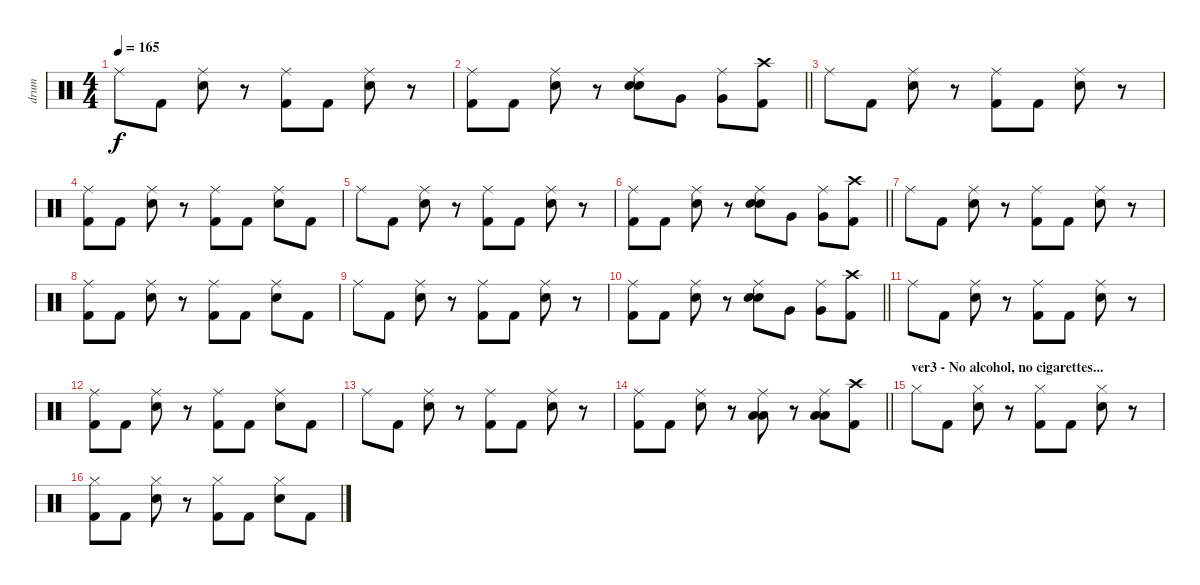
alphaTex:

\track ("drum" "drum") {instrument percussion}
\staff {score}
\articulation defaults
\ts (4 4)
\tempo 165
\clef neutral
\ks c "Ride (middle)".8{dy f} "Kick (hit) 2".8
("Ride (middle)" "Snare (hit) 2").8 r.8 ("Ride (middle)" "Kick (hit) 2").8 "Kick (hit) 2".8 ("Ride (middle)" "Snare (hit) 2").8 r.8 |
\barLineRight lightlight
("Ride (middle)" "Kick (hit) 2").8 "Kick (hit) 2".8 ("Ride (middle)" "Snare (hit) 2").8 r.8 ("Ride (middle)" "Snare (hit) 2" "Snare (hit) 2").8 "Very Low Tom (hit)".8 ("Ride (middle)" "Very Low Tom (hit)").8 ("Crash high (hit)" "Kick (hit) 2").8 |
"Ride (middle)".8 "Kick (hit) 2".8 ("Ride (middle)" "Snare (hit) 2").8 r.8 ("Ride (middle)" "Kick (hit) 2").8 "Kick (hit) 2".8 ("Ride (middle)" "Snare (hit) 2").8 r.8 |
("Ride (middle)" "Kick (hit) 2").8 "Kick (hit) 2".8 ("Ride (middle)" "Snare (hit) 2").8 r.8 ("Ride (middle)" "Kick (hit) 2").8 "Kick (hit) 2".8 ("Ride (middle)" "Snare (hit) 2").8 "Kick (hit) 2".8 |
"Ride (middle)".8 "Kick (hit) 2".8 ("Ride (middle)" "Snare (hit) 2").8 r.8 ("Ride (middle)" "Kick (hit) 2").8 "Kick (hit) 2".8 ("Ride (middle)" "Snare (hit) 2").8 r.8 |
\barLineRight lightlight
("Ride (middle)" "Kick (hit) 2").8 "Kick (hit) 2".8 ("Ride (middle)" "Snare (hit) 2").8 r.8 ("Ride (middle)" "Snare (hit) 2" "Snare (hit) 2").8 "Very Low Tom (hit)".8 ("Ride (middle)" "Very Low Tom (hit)").8 ("Crash high (hit)" "Kick (hit) 2").8 |
"Ride (middle)".8 "Kick (hit) 2".8 ("Ride (middle)" "Snare (hit) 2").8 r.8 ("Ride (middle)" "Kick (hit) 2").8 "Kick (hit) 2".8 ("Ride (middle)" "Snare (hit) 2").8 r.8 |
("Ride (middle)" "Kick (hit) 2").8 "Kick (hit) 2".8 ("Ride (middle)" "Snare (hit) 2").8 r.8 ("Ride (middle)" "Kick (hit) 2").8 "Kick (hit) 2".8 ("Ride (middle)" "Snare (hit) 2").8 "Kick (hit) 2".8 |
"Ride (middle)".8 "Kick (hit) 2".8 ("Ride (middle)" "Snare (hit) 2").8 r.8 ("Ride (middle)" "Kick (hit) 2").8 "Kick (hit) 2".8 ("Ride (middle)" "Snare (hit) 2").8 r.8 |
\barLineRight lightlight
("Ride (middle)" "Kick (hit) 2").8 "Kick (hit) 2".8 ("Ride (middle)" "Snare (hit) 2").8 r.8 ("Ride (middle)" "Snare (hit) 2" "Snare (hit) 2").8 "Very Low Tom (hit)".8 ("Ride (middle)" "Very Low Tom (hit)").8 ("Crash high (hit)" "Kick (hit) 2").8 |
"Ride (middle)".8 "Kick (hit) 2".8 ("Ride (middle)" "Snare (hit) 2").8 r.8 ("Ride (middle)" "Kick (hit) 2").8 "Kick (hit) 2".8 ("Ride (middle)" "Snare (hit) 2").8 r.8 |
("Ride (middle)" "Kick (hit) 2").8 "Kick (hit) 2".8 ("Ride (middle)" "Snare (hit) 2").8 r.8 ("Ride (middle)" "Kick (hit) 2").8 "Kick (hit) 2".8 ("Ride (middle)" "Snare (hit) 2").8 "Kick (hit) 2".8 |
"Ride (middle)".8 "Kick (hit) 2".8 ("Ride (middle)" "Snare (hit) 2").8 r.8 ("Ride (middle)" "Kick (hit) 2").8 "Kick (hit) 2".8 ("Ride (middle)" "Snare (hit) 2").8 r.8 |
\barLineRight lightlight
("Ride (middle)" "Kick (hit) 2").8 "Kick (hit) 2".8 ("Ride (middle)" "Snare (hit) 2").8 r.8 ("Ride (middle)" "Low Tom (hit)" "Low Floor Tom (hit)").8 r.8 ("Ride (middle)" "Low Tom (hit)" "Low Floor Tom (hit)").8 ("Crash high (hit)" "Kick (hit) 2").8 |
\section ("" "ver3 - No alcohol, no cigarettes...")
"Hi-Hat (closed)".8 "Kick (hit) 2".8 ("Hi-Hat (closed)" "Snare (hit) 2").8 r.8 ("Hi-Hat (closed)" "Kick (hit) 2").8 "Kick (hit) 2".8 ("Hi-Hat (closed)" "Snare (hit) 2").8 r.8 |
("Hi-Hat (closed)" "Kick (hit) 2").8 "Kick (hit) 2".8 ("Hi-Hat (closed)" "Snare (hit) 2").8 r.8 ("Hi-Hat (closed)" "Kick (hit) 2").8 "Kick (hit) 2".8 ("Hi-Hat (closed)" "Snare (hit) 2").8 "Kick (hit) 2".8
